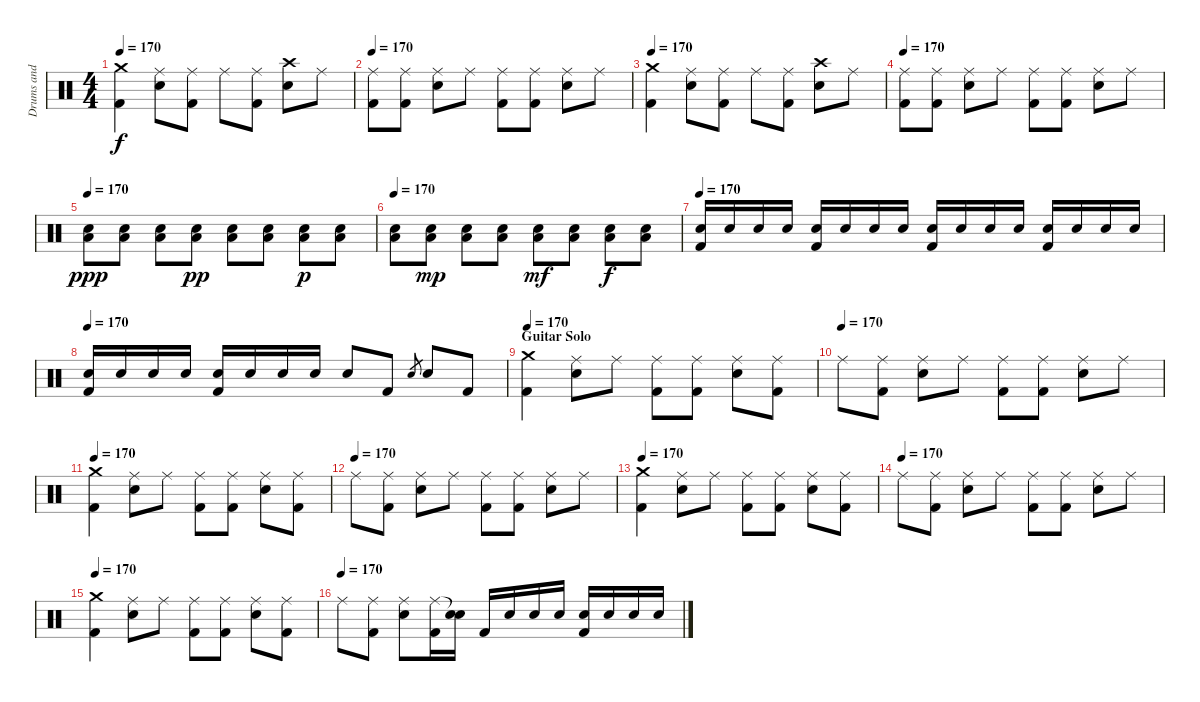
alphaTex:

\track ("Drums and Percussion" "Drums and ") {instrument percussion}
\staff {score}
\articulation defaults
\ts (4 4)
\tempo 170
\clef neutral
\ks c
("Crash medium (hit)" "Kick (hit) 2").4{dy f} ("Ride (middle)" "Electric Snare (hit)").8 ("Ride (middle)" "Kick (hit) 2").8 "Ride (middle)".8 ("Ride (middle)" "Kick (hit) 2").8 ("Crash high (hit)" "Electric Snare (hit)").8 "Ride (middle)".8 |
\tempo 170
("Ride (middle)" "Kick (hit) 2").8 ("Ride (middle)" "Kick (hit) 2").8 ("Ride (middle)" "Electric Snare (hit)").8 "Ride (middle)".8 ("Ride (middle)" "Kick (hit) 2").8 ("Ride (middle)" "Kick (hit) 2").8 ("Ride (middle)" "Electric Snare (hit)").8 "Ride (middle)".8 |
\tempo 170
("Crash medium (hit)" "Kick (hit) 2").4 ("Ride (middle)" "Electric Snare (hit)").8 ("Ride (middle)" "Kick (hit) 2").8 "Ride (middle)".8 ("Ride (middle)" "Kick (hit) 2").8 ("Crash high (hit)" "Electric Snare (hit)").8 "Ride (middle)".8 |
\tempo 170
("Ride (middle)" "Kick (hit) 2").8 ("Ride (middle)" "Kick (hit) 2").8 ("Ride (middle)" "Electric Snare (hit)").8 "Ride (middle)".8 ("Ride (middle)" "Kick (hit) 2").8 ("Ride (middle)" "Kick (hit) 2").8 ("Ride (middle)" "Electric Snare (hit)").8 "Ride (middle)".8 |
\tempo 170
("Electric Snare (hit)" "Low Floor Tom (hit)").8{dy ppp} ("Electric Snare (hit)" "Low Floor Tom (hit)").8 ("Electric Snare (hit)" "Low Floor Tom (hit)").8 ("Electric Snare (hit)" "Low Floor Tom (hit)").8{dy pp} ("Electric Snare (hit)" "Low Floor Tom (hit)").8 ("Electric Snare (hit)" "Low Floor Tom (hit)").8 ("Electric Snare (hit)" "Low Floor Tom (hit)").8{dy p} ("Electric Snare (hit)" "Low Floor Tom (hit)").8 |
\tempo 170
("Electric Snare (hit)" "Low Floor Tom (hit)").8 ("Electric Snare (hit)" "Low Floor Tom (hit)").8{dy mp} ("Electric Snare (hit)" "Low Floor Tom (hit)").8 ("Electric Snare (hit)" "Low Floor Tom (hit)").8 ("Electric Snare (hit)" "Low Floor Tom (hit)").8{dy mf} ("Electric Snare (hit)" "Low Floor Tom (hit)").8 ("Electric Snare (hit)" "Low Floor Tom (hit)").8{dy f} ("Electric Snare (hit)" "Low Floor Tom (hit)").8 |
\tempo 170
("Electric Snare (hit)" "Kick (hit) 2").16 "Electric Snare (hit)".16 "Electric Snare (hit)".16 "Electric Snare (hit)".16 ("Electric Snare (hit)" "Kick (hit) 2").16 "Electric Snare (hit)".16 "Electric Snare (hit)".16 "Electric Snare (hit)".16 ("Electric Snare (hit)" "Kick (hit) 2").16 "Electric Snare (hit)".16 "Electric Snare (hit)".16 "Electric Snare (hit)".16 ("Electric Snare (hit)" "Kick (hit) 2").16 "Electric Snare (hit)".16 "Electric Snare (hit)".16 "Electric Snare (hit)".16 |
\tempo 170
("Electric Snare (hit)" "Kick (hit) 2").16 "Electric Snare (hit)".16 "Electric Snare (hit)".16 "Electric Snare (hit)".16 ("Electric Snare (hit)" "Kick (hit) 2").16 "Electric Snare (hit)".16 "Electric Snare (hit)".16 "Electric Snare (hit)".16 "Electric Snare (hit)".8 "Kick (hit) 2".8 "Electric Snare (hit)".8{gr} "Electric Snare (hit)".8 "Kick (hit) 2".8 |
\section ("" "Guitar Solo")
\tempo 170
("Crash medium (hit)" "Kick (hit) 2").4 ("Ride (middle)" "Electric Snare (hit)").8 "Ride (middle)".8 ("Ride (middle)" "Kick (hit) 2").8 ("Ride (middle)" "Kick (hit) 2").8 ("Ride (middle)" "Electric Snare (hit)").8 ("Ride (middle)" "Kick (hit) 2").8 |
\tempo (170)
"Ride (middle)".8 ("Ride (middle)" "Kick (hit) 2").8 ("Ride (middle)" "Electric Snare (hit)").8 "Ride (middle)".8 ("Ride (middle)" "Kick (hit) 2").8 ("Ride (middle)" "Kick (hit) 2").8 ("Ride (middle)" "Electric Snare (hit)").8 "Ride (middle)".8 |
\tempo 170
("Crash medium (hit)" "Kick (hit) 2").4 ("Ride (middle)" "Electric Snare (hit)").8 "Ride (middle)".8 ("Ride (middle)" "Kick (hit) 2").8 ("Ride (middle)" "Kick (hit) 2").8 ("Ride (middle)" "Electric Snare (hit)").8 ("Ride (middle)" "Kick (hit) 2").8 |
\tempo (170)
"Ride (middle)".8 ("Ride (middle)" "Kick (hit) 2").8 ("Ride (middle)" "Electric Snare (hit)").8 "Ride (middle)".8 ("Ride (middle)" "Kick (hit) 2").8 ("Ride (middle)" "Kick (hit) 2").8 ("Ride (middle)" "Electric Snare (hit)").8 "Ride (middle)".8 |
\tempo 170
("Crash medium (hit)" "Kick (hit) 2").4 ("Ride (middle)" "Electric Snare (hit)").8 "Ride (middle)".8 ("Ride (middle)" "Kick (hit) 2").8 ("Ride (middle)" "Kick (hit) 2").8 ("Ride (middle)" "Electric Snare (hit)").8 ("Ride (middle)" "Kick (hit) 2").8 |
\tempo (170)
"Ride (middle)".8 ("Ride (middle)" "Kick (hit) 2").8 ("Ride (middle)" "Electric Snare (hit)").8 "Ride (middle)".8 ("Ride (middle)" "Kick (hit) 2").8 ("Ride (middle)" "Kick (hit) 2").8 ("Ride (middle)" "Electric Snare (hit)").8 "Ride (middle)".8 |
\tempo 170
("Crash medium (hit)" "Kick (hit) 2").4 ("Ride (middle)" "Electric Snare (hit)").8 "Ride (middle)".8 ("Ride (middle)" "Kick (hit) 2").8 ("Ride (middle)" "Kick (hit) 2").8 ("Ride (middle)" "Electric Snare (hit)").8 ("Ride (middle)" "Kick (hit) 2").8 |
\tempo (170)
"Ride (middle)".8 ("Ride (middle)" "Kick (hit) 2").8 ("Ride (middle)" "Electric Snare (hit)").8 ("Ride (middle)" "Kick (hit) 2").16 ("Snare (hit)"{t} "Electric Snare (hit)").16 "Kick (hit) 2".16 "Electric Snare (hit)".16 "Electric Snare (hit)".16 "Electric Snare (hit)".16 ("Electric Snare (hit)" "Kick (hit) 2").16 "Electric Snare (hit)".16 "Electric Snare (hit)".16 "Electric Snare (hit)".16
